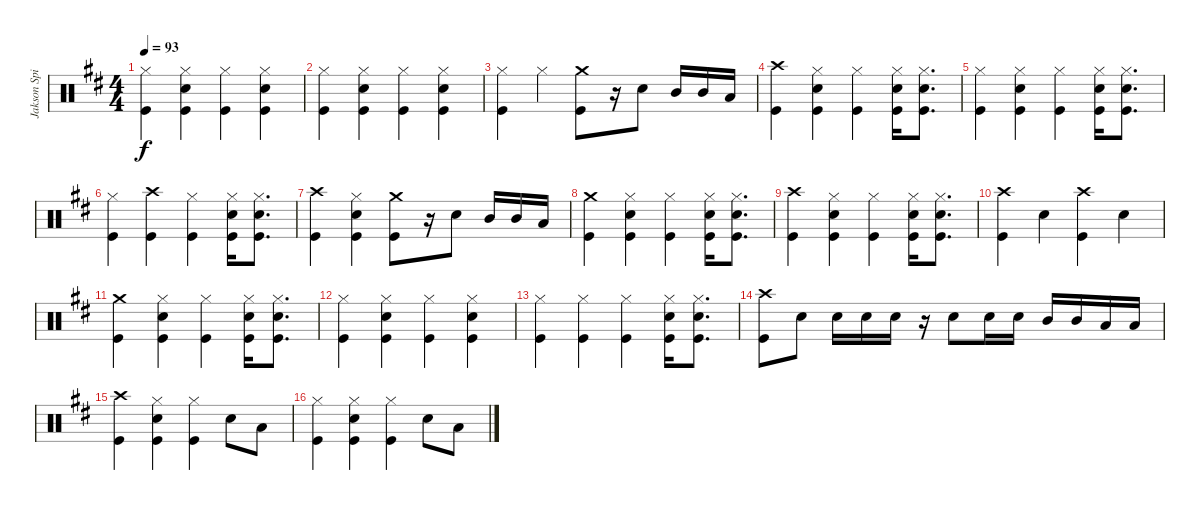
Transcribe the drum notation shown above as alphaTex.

\track ("Jakson Spires Drums" "Jakson Spi") {instrument percussion}
\staff {score}
\articulation defaults
\ts (4 4)
\tempo 93
\clef neutral
\ks bminor
("Hi-Hat (closed)" "Kick (hit)").4{dy f} ("Hi-Hat (closed)" "Snare (hit) 2" "Kick (hit)").4 ("Hi-Hat (closed)" "Kick (hit)").4 ("Hi-Hat (closed)" "Snare (hit) 2" "Kick (hit)").4 |
("Hi-Hat (closed)" "Kick (hit)").4 ("Hi-Hat (closed)" "Snare (hit) 2" "Kick (hit)").4 ("Hi-Hat (closed)" "Kick (hit)").4 ("Hi-Hat (closed)" "Snare (hit) 2" "Kick (hit)").4 |
("Hi-Hat (closed)" "Kick (hit)").4 "Hi-Hat (closed)".4 ("Crash medium (hit)" "Kick (hit)").8 r.16 "Snare (hit) 2".8 "Mid Tom (hit)".16 "Mid Tom (hit)".16 "Low Tom (hit)".16 |
("Crash high (hit)" "Kick (hit)").4 ("Hi-Hat (closed)" "Snare (hit) 2" "Kick (hit)").4 ("Hi-Hat (closed)" "Kick (hit)").4 ("Hi-Hat (closed)" "Snare (hit) 2" "Kick (hit)").16 ("Hi-Hat (closed)" "Snare (hit) 2" "Kick (hit)").8{d} |
("Hi-Hat (closed)" "Kick (hit)").4 ("Hi-Hat (closed)" "Snare (hit) 2" "Kick (hit)").4 ("Hi-Hat (closed)" "Kick (hit)").4 ("Hi-Hat (closed)" "Snare (hit) 2" "Kick (hit)").16 ("Hi-Hat (closed)" "Snare (hit) 2" "Kick (hit)").8{d} |
("Hi-Hat (closed)" "Kick (hit)").4 ("Crash high (hit)" "Kick (hit)").4 ("Hi-Hat (closed)" "Kick (hit)").4 ("Hi-Hat (closed)" "Snare (hit) 2" "Kick (hit)").16 ("Hi-Hat (closed)" "Snare (hit) 2" "Kick (hit)").8{d} |
("Crash high (hit)" "Kick (hit)").4 ("Hi-Hat (closed)" "Snare (hit) 2" "Kick (hit)").4 ("Crash medium (hit)" "Kick (hit)").8 r.16 "Snare (hit) 2".8 "Mid Tom (hit)".16 "Mid Tom (hit)".16 "Low Tom (hit)".16 |
("Crash medium (hit)" "Kick (hit)").4 ("Hi-Hat (closed)" "Snare (hit) 2" "Kick (hit)").4 ("Hi-Hat (closed)" "Kick (hit)").4 ("Hi-Hat (closed)" "Snare (hit) 2" "Kick (hit)").16 ("Hi-Hat (closed)" "Snare (hit) 2" "Kick (hit)").8{d} |
("Crash high (hit)" "Kick (hit)").4 ("Hi-Hat (closed)" "Snare (hit) 2" "Kick (hit)").4 ("Hi-Hat (closed)" "Kick (hit)").4 ("Hi-Hat (closed)" "Snare (hit) 2" "Kick (hit)").16 ("Hi-Hat (closed)" "Snare (hit) 2" "Kick (hit)").8{d} |
("Crash high (hit)" "Kick (hit)").4 "Snare (hit) 2".4 ("Crash high (hit)" "Kick (hit)").4 "Snare (hit) 2".4 |
("Crash medium (hit)" "Kick (hit)").4 ("Hi-Hat (closed)" "Snare (hit) 2" "Kick (hit)").4 ("Hi-Hat (closed)" "Kick (hit)").4 ("Hi-Hat (closed)" "Snare (hit) 2" "Kick (hit)").16 ("Hi-Hat (closed)" "Snare (hit) 2" "Kick (hit)").8{d} |
("Hi-Hat (closed)" "Kick (hit)").4 ("Hi-Hat (closed)" "Snare (hit) 2" "Kick (hit)").4 ("Hi-Hat (closed)" "Kick (hit)").4 ("Hi-Hat (closed)" "Snare (hit) 2" "Kick (hit)").4 |
("Hi-Hat (closed)" "Kick (hit)").4 ("Hi-Hat (closed)" "Kick (hit)").4 ("Hi-Hat (closed)" "Kick (hit)").4 ("Hi-Hat (closed)" "Snare (hit) 2" "Kick (hit)").16 ("Hi-Hat (closed)" "Snare (hit) 2" "Kick (hit)").8{d} |
("Crash high (hit)" "Kick (hit)").8 "Snare (hit) 2".8 "Snare (hit) 2".16 "Snare (hit) 2".16 "Snare (hit) 2".16 r.16 "Snare (hit) 2".8 "Snare (hit) 2".16 "Snare (hit) 2".16 "Mid Tom (hit)".16 "Mid Tom (hit)".16 "Low Tom (hit)".16 "Low Tom (hit)".16 |
("Crash high (hit)" "Kick (hit)").4 ("Hi-Hat (closed)" "Snare (hit) 2" "Kick (hit)").4 ("Hi-Hat (closed)" "Kick (hit)").4 "Snare (hit) 2".8 "Low Tom (hit)".8 |
("Hi-Hat (closed)" "Kick (hit)").4 ("Hi-Hat (closed)" "Snare (hit) 2" "Kick (hit)").4 ("Hi-Hat (closed)" "Kick (hit)").4 "Snare (hit) 2".8 "Low Tom (hit)".8
